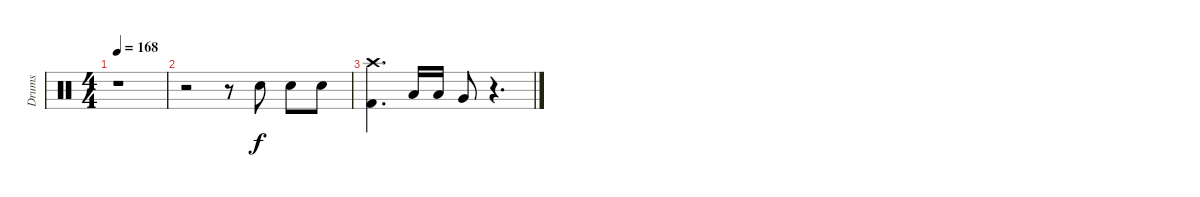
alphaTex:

\track ("Drums" "Drums") {instrument percussion}
\staff {score}
\articulation defaults
\ts (4 4)
\tempo 168
\clef neutral
\ks c
r.1{dy f} |
r.2 r.8 "Snare (hit) 2".8 "Snare (hit) 2".8 "Snare (hit) 2".8 |
("Crash high (hit)" "Kick (hit) 2").4{d} "Low Tom (hit)".16 "Low Tom (hit)".16 "Very Low Tom (hit)".8 r.4{d}
